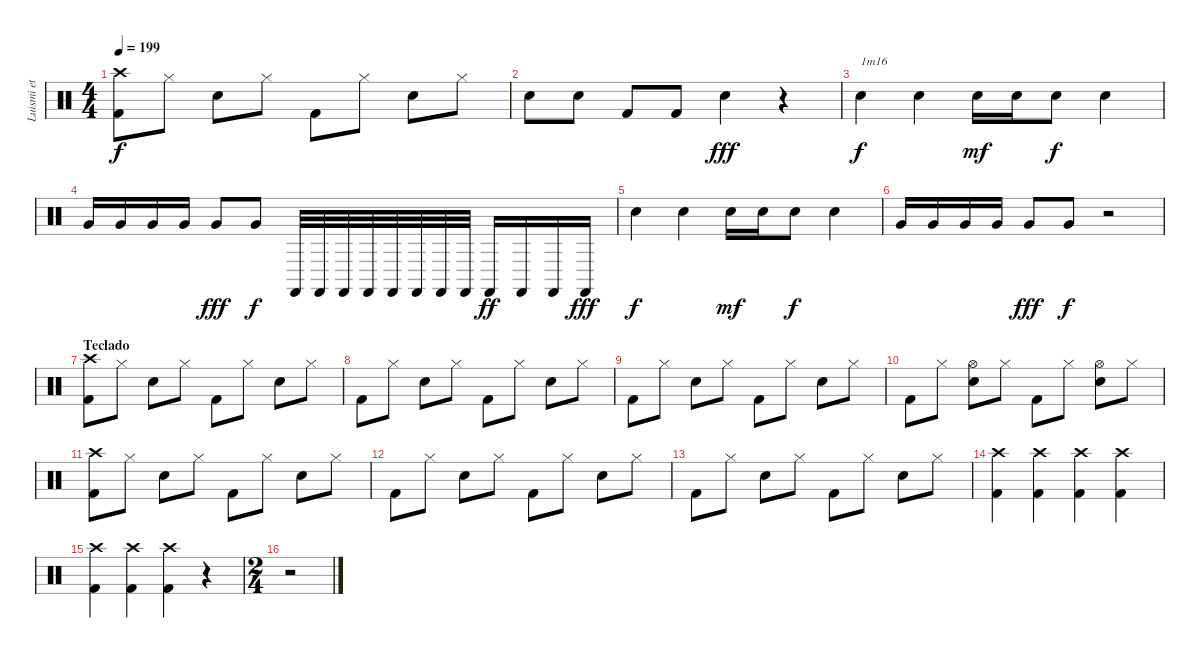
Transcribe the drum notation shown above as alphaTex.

\track ("Luismi et ses castagnettes" "Luismi et ") {instrument percussion}
\staff {score}
\articulation defaults
\ts (4 4)
\tempo 199
\clef neutral
\ks c
("Crash high (hit)" "Kick (hit) 2").8{dy f} "Hi-Hat (closed)".8 "Snare (hit) 2".8 "Hi-Hat (closed)".8 "Kick (hit) 2".8 "Hi-Hat (closed)".8 "Snare (hit) 2".8 "Hi-Hat (closed)".8 |
"Snare (hit) 2".8 "Snare (hit) 2".8 "Kick (hit) 2".8 "Kick (hit) 2".8 "Snare (hit) 2".4{dy fff} r.4 |
"Snare (hit) 2".4{txt "1m16" dy f} "Snare (hit) 2".4 "Snare (hit) 2".16{dy mf} "Snare (hit) 2".16 "Snare (hit) 2".8{dy f} "Snare (hit) 2".4 |
"Very Low Tom (hit)".16 "Very Low Tom (hit)".16 "Very Low Tom (hit)".16 "Very Low Tom (hit)".16 "Very Low Tom (hit)".8{dy fff} "Very Low Tom (hit)".8{dy f} "Castanets (hit)".32{volume 16} "Castanets (hit)".32 "Castanets (hit)".32 "Castanets (hit)".32 "Castanets (hit)".32 "Castanets (hit)".32 "Castanets (hit)".32 "Castanets (hit)".32 "Castanets (hit)".16{dy ff} "Castanets (hit)".16 "Castanets (hit)".16 "Castanets (hit)".16{dy fff} |
"Snare (hit) 2".4{dy f volume 14} "Snare (hit) 2".4 "Snare (hit) 2".16{dy mf} "Snare (hit) 2".16 "Snare (hit) 2".8{dy f} "Snare (hit) 2".4 |
"Very Low Tom (hit)".16 "Very Low Tom (hit)".16 "Very Low Tom (hit)".16 "Very Low Tom (hit)".16 "Very Low Tom (hit)".8{dy fff} "Very Low Tom (hit)".8{dy f} r.2 |
\section ("" "Teclado")
("Crash high (hit)" "Kick (hit) 2").8 "Hi-Hat (closed)".8 "Snare (hit) 2".8 "Hi-Hat (closed)".8 "Kick (hit) 2".8 "Hi-Hat (closed)".8 "Snare (hit) 2".8 "Hi-Hat (closed)".8 |
"Kick (hit) 2".8 "Hi-Hat (closed)".8 "Snare (hit) 2".8 "Hi-Hat (closed)".8 "Kick (hit) 2".8 "Hi-Hat (closed)".8 "Snare (hit) 2".8 "Hi-Hat (closed)".8 |
"Kick (hit) 2".8 "Hi-Hat (closed)".8 "Snare (hit) 2".8 "Hi-Hat (closed)".8 "Kick (hit) 2".8 "Hi-Hat (closed)".8 "Snare (hit) 2".8 "Hi-Hat (closed)".8 |
"Kick (hit) 2".8 "Hi-Hat (closed)".8 ("Hi-Hat (open)" "Snare (hit) 2").8 "Hi-Hat (closed)".8 "Kick (hit) 2".8 "Hi-Hat (closed)".8 ("Hi-Hat (open)" "Snare (hit) 2").8 "Hi-Hat (closed)".8 |
("Crash high (hit)" "Kick (hit) 2").8 "Hi-Hat (closed)".8 "Snare (hit) 2".8 "Hi-Hat (closed)".8 "Kick (hit) 2".8 "Hi-Hat (closed)".8 "Snare (hit) 2".8 "Hi-Hat (closed)".8 |
"Kick (hit) 2".8 "Hi-Hat (closed)".8 "Snare (hit) 2".8 "Hi-Hat (closed)".8 "Kick (hit) 2".8 "Hi-Hat (closed)".8 "Snare (hit) 2".8 "Hi-Hat (closed)".8 |
"Kick (hit) 2".8 "Hi-Hat (closed)".8 "Snare (hit) 2".8 "Hi-Hat (closed)".8 "Kick (hit) 2".8 "Hi-Hat (closed)".8 "Snare (hit) 2".8 "Hi-Hat (closed)".8 |
("Crash high (hit)" "Kick (hit) 2").4 ("Crash high (hit)" "Kick (hit) 2").4 ("Crash high (hit)" "Kick (hit) 2").4 ("Crash high (hit)" "Kick (hit) 2").4 |
("Crash high (hit)" "Kick (hit) 2").4 ("Crash high (hit)" "Kick (hit) 2").4 ("Crash high (hit)" "Kick (hit) 2").4 r.4 |
\ts (2 4)
r.2
